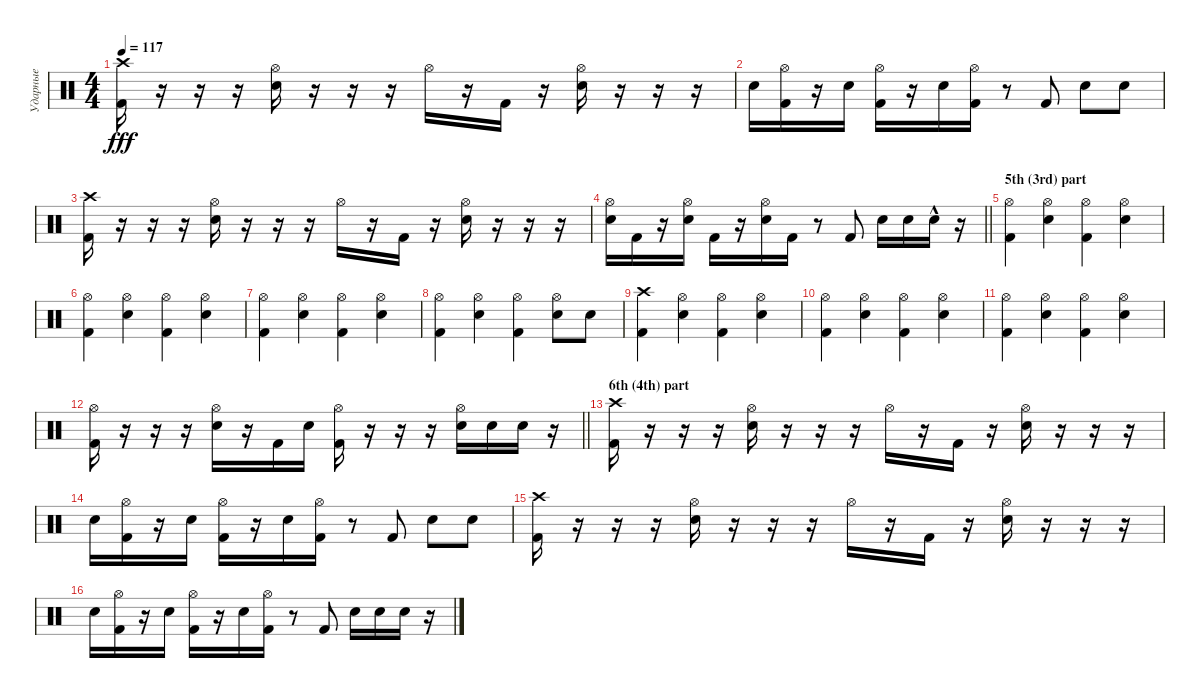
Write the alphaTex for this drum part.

\track ("Ударные" "Ударные") {instrument percussion}
\staff {score}
\articulation defaults
\ts (4 4)
\tempo 117
\clef neutral
\ks c
("Crash high (hit)" "Kick (hit) 2").16{dy fff} r.16 r.16 r.16 ("Hi-Hat (open)" "Snare (hit) 2").16 r.16 r.16 r.16 "Hi-Hat (open)".16 r.16 "Kick (hit) 2".16 r.16 ("Hi-Hat (open)" "Snare (hit) 2").16 r.16 r.16 r.16 |
"Snare (hit) 2".16 ("Kick (hit) 2" "Hi-Hat (open)").16 r.16 "Snare (hit) 2".16 ("Kick (hit) 2" "Hi-Hat (open)").16 r.16 "Snare (hit) 2".16 ("Kick (hit) 2" "Hi-Hat (open)").16 r.8 "Kick (hit) 2".8 "Snare (hit) 2".8 "Snare (hit) 2".8 |
("Crash high (hit)" "Kick (hit) 2").16 r.16 r.16 r.16 ("Hi-Hat (open)" "Snare (hit) 2").16 r.16 r.16 r.16 "Hi-Hat (open)".16 r.16 "Kick (hit) 2".16 r.16 ("Hi-Hat (open)" "Snare (hit) 2").16 r.16 r.16 r.16 |
\barLineRight lightlight
("Snare (hit) 2" "Hi-Hat (open)").16 "Kick (hit) 2".16 r.16 ("Snare (hit) 2" "Hi-Hat (open)").16 "Kick (hit) 2".16 r.16 ("Snare (hit) 2" "Hi-Hat (open)").16 "Kick (hit) 2".16 r.8 "Kick (hit) 2".8 "Snare (hit) 2".16 "Snare (hit) 2".16 "Snare (hit) 2"{hac}.16 r.16 |
\section ("" "5th (3rd) part")
("Hi-Hat (open)" "Kick (hit) 2").4 ("Hi-Hat (open)" "Snare (hit) 2").4 ("Hi-Hat (open)" "Kick (hit) 2").4 ("Hi-Hat (open)" "Snare (hit) 2").4 |
("Hi-Hat (open)" "Kick (hit) 2").4 ("Hi-Hat (open)" "Snare (hit) 2").4 ("Hi-Hat (open)" "Kick (hit) 2").4 ("Hi-Hat (open)" "Snare (hit) 2").4 |
("Hi-Hat (open)" "Kick (hit) 2").4 ("Hi-Hat (open)" "Snare (hit) 2").4 ("Hi-Hat (open)" "Kick (hit) 2").4 ("Hi-Hat (open)" "Snare (hit) 2").4 |
("Hi-Hat (open)" "Kick (hit) 2").4 ("Hi-Hat (open)" "Snare (hit) 2").4 ("Hi-Hat (open)" "Kick (hit) 2").4 ("Hi-Hat (open)" "Snare (hit) 2").8 "Snare (hit) 2".8 |
("Crash high (hit)" "Kick (hit) 2").4 ("Hi-Hat (open)" "Snare (hit) 2").4 ("Hi-Hat (open)" "Kick (hit) 2").4 ("Hi-Hat (open)" "Snare (hit) 2").4 |
("Hi-Hat (open)" "Kick (hit) 2").4 ("Hi-Hat (open)" "Snare (hit) 2").4 ("Hi-Hat (open)" "Kick (hit) 2").4 ("Hi-Hat (open)" "Snare (hit) 2").4 |
("Hi-Hat (open)" "Kick (hit) 2").4 ("Hi-Hat (open)" "Snare (hit) 2").4 ("Hi-Hat (open)" "Kick (hit) 2").4 ("Hi-Hat (open)" "Snare (hit) 2").4 |
\barLineRight lightlight
("Hi-Hat (open)" "Kick (hit) 2").16 r.16 r.16 r.16 ("Hi-Hat (open)" "Snare (hit) 2").16 r.16 "Kick (hit) 2".16 "Snare (hit) 2".16 ("Hi-Hat (open)" "Kick (hit) 2").16 r.16 r.16 r.16 ("Hi-Hat (open)" "Snare (hit) 2").16 "Snare (hit) 2".16 "Snare (hit) 2".16 r.16 |
\section ("" "6th (4th) part")
("Crash high (hit)" "Kick (hit) 2").16 r.16 r.16 r.16 ("Hi-Hat (open)" "Snare (hit) 2").16 r.16 r.16 r.16 "Hi-Hat (open)".16 r.16 "Kick (hit) 2".16 r.16 ("Hi-Hat (open)" "Snare (hit) 2").16 r.16 r.16 r.16 |
"Snare (hit) 2".16 ("Kick (hit) 2" "Hi-Hat (open)").16 r.16 "Snare (hit) 2".16 ("Kick (hit) 2" "Hi-Hat (open)").16 r.16 "Snare (hit) 2".16 ("Kick (hit) 2" "Hi-Hat (open)").16 r.8 "Kick (hit) 2".8 "Snare (hit) 2".8 "Snare (hit) 2".8 |
("Crash high (hit)" "Kick (hit) 2").16 r.16 r.16 r.16 ("Hi-Hat (open)" "Snare (hit) 2").16 r.16 r.16 r.16 "Hi-Hat (open)".16 r.16 "Kick (hit) 2".16 r.16 ("Hi-Hat (open)" "Snare (hit) 2").16 r.16 r.16 r.16 |
"Snare (hit) 2".16 ("Kick (hit) 2" "Hi-Hat (open)").16 r.16 "Snare (hit) 2".16 ("Kick (hit) 2" "Hi-Hat (open)").16 r.16 "Snare (hit) 2".16 ("Kick (hit) 2" "Hi-Hat (open)").16 r.8 "Kick (hit) 2".8 "Snare (hit) 2".16 "Snare (hit) 2".16 "Snare (hit) 2".16 r.16
